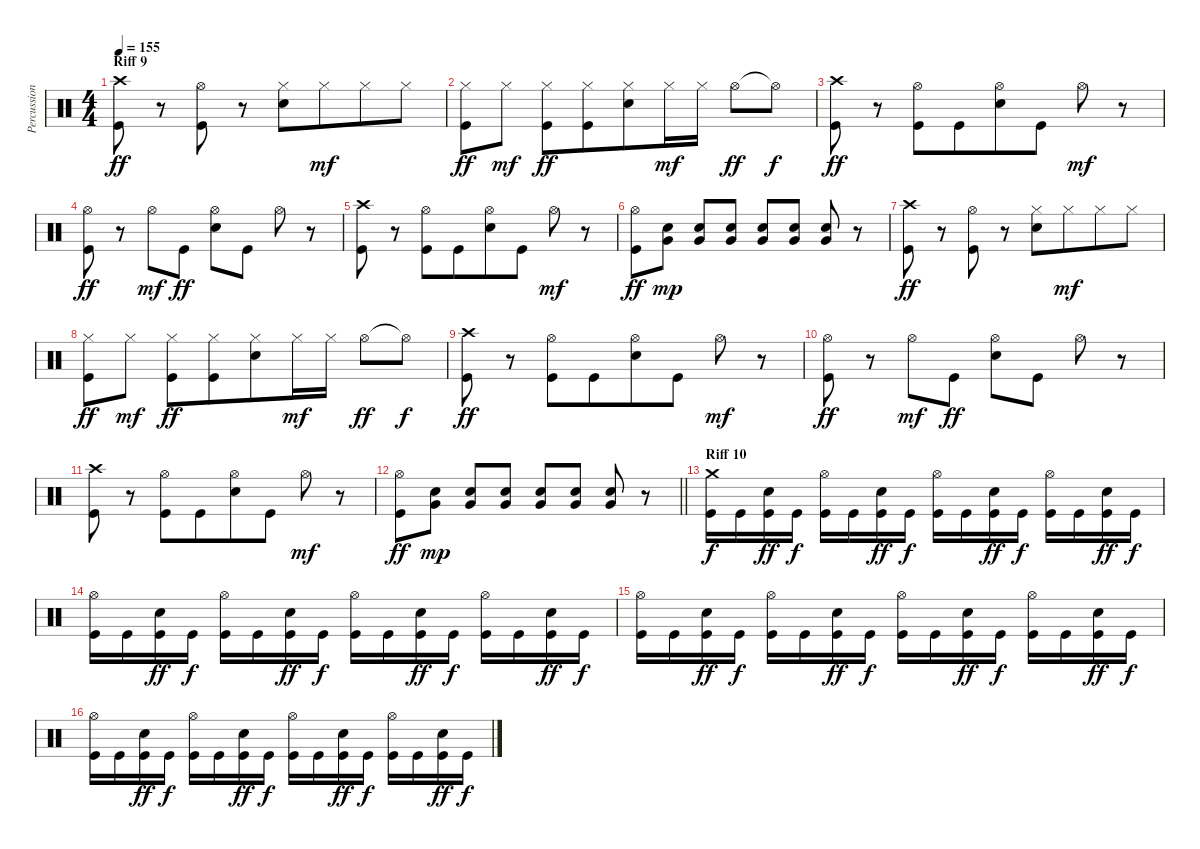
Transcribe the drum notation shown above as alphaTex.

\track ("Percussions" "Percussion") {instrument percussion}
\staff {score}
\articulation defaults
\ts (4 4)
\section ("" "Riff 9")
\tempo 155
\clef neutral
\ks c
("Crash high (hit)" "Kick (hit)").8{dy ff} r.8{beam merge} ("Hi-Hat (open)" "Kick (hit)").8 r.8{beam merge} ("Hi-Hat (closed)" "Electric Snare (hit)").8 "Hi-Hat (closed)".8{dy mf beam merge} "Hi-Hat (closed)".8 "Hi-Hat (closed)".8 |
("Hi-Hat (closed)" "Kick (hit)").8{dy ff beam merge} "Hi-Hat (closed)".8{dy mf} ("Hi-Hat (closed)" "Kick (hit)").8{dy ff beam merge} ("Hi-Hat (closed)" "Kick (hit)").8{beam merge} ("Hi-Hat (closed)" "Electric Snare (hit)").8 "Hi-Hat (closed)".16{dy mf beam merge} "Hi-Hat (closed)".16 "Hi-Hat (open)".8{dy ff} "Hi-Hat (open)"{t}.8{dy f} |
("Crash high (hit)" "Kick (hit)").8{dy ff} r.8 ("Hi-Hat (open)" "Kick (hit)").8 "Kick (hit)".8{beam merge} ("Hi-Hat (open)" "Electric Snare (hit)").8 "Kick (hit)".8 "Hi-Hat (open)".8{dy mf} r.8 |
("Hi-Hat (open)" "Kick (hit)").8{dy ff} r.8 "Hi-Hat (open)".8{dy mf} "Kick (hit)".8{dy ff} ("Hi-Hat (open)" "Electric Snare (hit)").8 "Kick (hit)".8 "Hi-Hat (open)".8 r.8 |
("Crash high (hit)" "Kick (hit)").8 r.8 ("Hi-Hat (open)" "Kick (hit)").8 "Kick (hit)".8{beam merge} ("Hi-Hat (open)" "Electric Snare (hit)").8 "Kick (hit)".8 "Hi-Hat (open)".8{dy mf} r.8 |
("Hi-Hat (open)" "Kick (hit)").8{dy ff} ("Electric Snare (hit)" "Very Low Tom (hit)").8{dy mp} ("Electric Snare (hit)" "Very Low Tom (hit)").8 ("Electric Snare (hit)" "Very Low Tom (hit)").8 ("Electric Snare (hit)" "Very Low Tom (hit)").8 ("Electric Snare (hit)" "Very Low Tom (hit)").8 ("Electric Snare (hit)" "Very Low Tom (hit)").8 r.8 |
("Crash high (hit)" "Kick (hit)").8{dy ff} r.8{beam merge} ("Hi-Hat (open)" "Kick (hit)").8 r.8{beam merge} ("Hi-Hat (closed)" "Electric Snare (hit)").8 "Hi-Hat (closed)".8{dy mf beam merge} "Hi-Hat (closed)".8 "Hi-Hat (closed)".8 |
("Hi-Hat (closed)" "Kick (hit)").8{dy ff beam merge} "Hi-Hat (closed)".8{dy mf} ("Hi-Hat (closed)" "Kick (hit)").8{dy ff beam merge} ("Hi-Hat (closed)" "Kick (hit)").8{beam merge} ("Hi-Hat (closed)" "Electric Snare (hit)").8 "Hi-Hat (closed)".16{dy mf beam merge} "Hi-Hat (closed)".16 "Hi-Hat (open)".8{dy ff} "Hi-Hat (open)"{t}.8{dy f} |
("Crash high (hit)" "Kick (hit)").8{dy ff} r.8 ("Hi-Hat (open)" "Kick (hit)").8 "Kick (hit)".8{beam merge} ("Hi-Hat (open)" "Electric Snare (hit)").8 "Kick (hit)".8 "Hi-Hat (open)".8{dy mf} r.8 |
("Hi-Hat (open)" "Kick (hit)").8{dy ff} r.8 "Hi-Hat (open)".8{dy mf} "Kick (hit)".8{dy ff} ("Hi-Hat (open)" "Electric Snare (hit)").8 "Kick (hit)".8 "Hi-Hat (open)".8 r.8 |
("Crash high (hit)" "Kick (hit)").8 r.8 ("Hi-Hat (open)" "Kick (hit)").8 "Kick (hit)".8{beam merge} ("Hi-Hat (open)" "Electric Snare (hit)").8 "Kick (hit)".8 "Hi-Hat (open)".8{dy mf} r.8 |
\barLineRight lightlight
("Hi-Hat (open)" "Kick (hit)").8{dy ff} ("Electric Snare (hit)" "Very Low Tom (hit)").8{dy mp} ("Electric Snare (hit)" "Very Low Tom (hit)").8 ("Electric Snare (hit)" "Very Low Tom (hit)").8 ("Electric Snare (hit)" "Very Low Tom (hit)").8 ("Electric Snare (hit)" "Very Low Tom (hit)").8 ("Electric Snare (hit)" "Very Low Tom (hit)").8 r.8 |
\section ("" "Riff 10")
("Crash medium (hit)" "Kick (hit)").16{dy f} "Kick (hit)".16 ("Electric Snare (hit)" "Kick (hit)").16{dy ff} "Kick (hit)".16{dy f} ("Hi-Hat (open)" "Kick (hit)").16 "Kick (hit)".16 ("Electric Snare (hit)" "Kick (hit)").16{dy ff} "Kick (hit)".16{dy f} ("Hi-Hat (open)" "Kick (hit)").16 "Kick (hit)".16 ("Electric Snare (hit)" "Kick (hit)").16{dy ff} "Kick (hit)".16{dy f} ("Hi-Hat (open)" "Kick (hit)").16 "Kick (hit)".16 ("Electric Snare (hit)" "Kick (hit)").16{dy ff} "Kick (hit)".16{dy f} |
("Hi-Hat (open)" "Kick (hit)").16 "Kick (hit)".16 ("Electric Snare (hit)" "Kick (hit)").16{dy ff} "Kick (hit)".16{dy f} ("Hi-Hat (open)" "Kick (hit)").16 "Kick (hit)".16 ("Electric Snare (hit)" "Kick (hit)").16{dy ff} "Kick (hit)".16{dy f} ("Hi-Hat (open)" "Kick (hit)").16 "Kick (hit)".16 ("Electric Snare (hit)" "Kick (hit)").16{dy ff} "Kick (hit)".16{dy f} ("Hi-Hat (open)" "Kick (hit)").16 "Kick (hit)".16 ("Electric Snare (hit)" "Kick (hit)").16{dy ff} "Kick (hit)".16{dy f} |
("Hi-Hat (open)" "Kick (hit)").16 "Kick (hit)".16 ("Electric Snare (hit)" "Kick (hit)").16{dy ff} "Kick (hit)".16{dy f} ("Hi-Hat (open)" "Kick (hit)").16 "Kick (hit)".16 ("Electric Snare (hit)" "Kick (hit)").16{dy ff} "Kick (hit)".16{dy f} ("Hi-Hat (open)" "Kick (hit)").16 "Kick (hit)".16 ("Electric Snare (hit)" "Kick (hit)").16{dy ff} "Kick (hit)".16{dy f} ("Hi-Hat (open)" "Kick (hit)").16 "Kick (hit)".16 ("Electric Snare (hit)" "Kick (hit)").16{dy ff} "Kick (hit)".16{dy f} |
("Hi-Hat (open)" "Kick (hit)").16 "Kick (hit)".16 ("Electric Snare (hit)" "Kick (hit)").16{dy ff} "Kick (hit)".16{dy f} ("Hi-Hat (open)" "Kick (hit)").16 "Kick (hit)".16 ("Electric Snare (hit)" "Kick (hit)").16{dy ff} "Kick (hit)".16{dy f} ("Hi-Hat (open)" "Kick (hit)").16 "Kick (hit)".16 ("Electric Snare (hit)" "Kick (hit)").16{dy ff} "Kick (hit)".16{dy f} ("Hi-Hat (open)" "Kick (hit)").16 "Kick (hit)".16 ("Electric Snare (hit)" "Kick (hit)").16{dy ff} "Kick (hit)".16{dy f}
